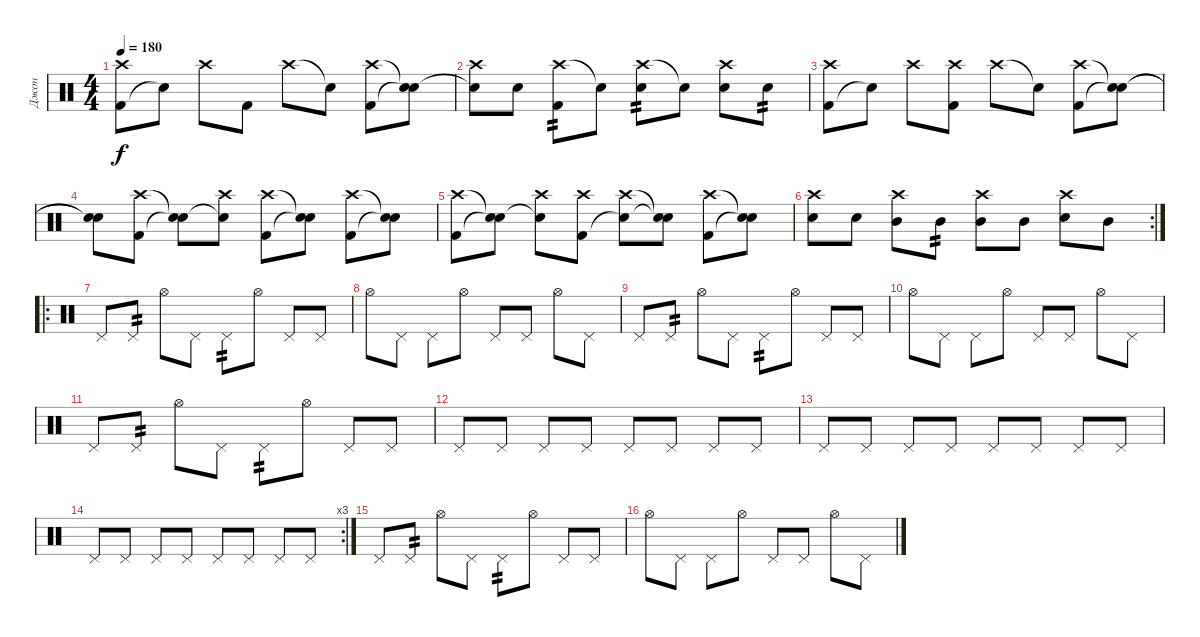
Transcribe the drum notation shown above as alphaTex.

\track ("Джон" "Джон") {instrument percussion}
\staff {score}
\articulation defaults
\ts (4 4)
\tempo 180
\clef neutral
\ks c
("Kick (hit) 2" "Crash high (hit)").8{dy f} "Snare (hit)"{t}.8 "Crash high (hit)".8 "Kick (hit) 2".8 "Crash high (hit)".8 "Snare (hit)"{t}.8 ("Kick (hit) 2" "Crash high (hit)").8 ("Snare (hit)"{t} "Snare (hit)"{t}).8 |
("Crash high (hit)" "Snare (hit)"{t}).8 "Electric Snare (hit)".8 ("Crash high (hit)" "Kick (hit) 2").8{tp 2} "Snare (hit)"{t}.8 ("Crash high (hit)" "Electric Snare (hit)").8{tp 2} "Snare (hit)"{t}.8 ("Crash high (hit)" "Electric Snare (hit)").8 "Electric Snare (hit)".8{tp 2} |
("Kick (hit) 2" "Crash high (hit)").8 "Snare (hit)"{t}.8 "Crash high (hit)".8 ("Kick (hit) 2" "Crash high (hit)").8 "Crash high (hit)".8 "Snare (hit)"{t}.8 ("Kick (hit) 2" "Crash high (hit)").8 ("Snare (hit)"{t} "Snare (hit)"{t}).8 |
("Snare (hit)"{t} "Snare (hit)"{t}).8 ("Kick (hit) 2" "Crash high (hit)").8 ("Snare (hit)"{t} "Snare (hit)"{t}).8 ("Snare (hit)"{t} "Crash high (hit)").8 ("Kick (hit) 2" "Crash high (hit)").8 ("Snare (hit)"{t} "Snare (hit)"{t}).8 ("Kick (hit) 2" "Crash high (hit)").8 ("Snare (hit)"{t} "Snare (hit)"{t}).8 |
("Kick (hit) 2" "Crash high (hit)").8 ("Snare (hit)"{t} "Snare (hit)"{t}).8 ("Snare (hit)"{t} "Crash high (hit)").8 ("Kick (hit) 2" "Crash high (hit)").8 ("Snare (hit)"{t} "Crash high (hit)").8 ("Snare (hit)"{t} "Snare (hit)"{t}).8 ("Kick (hit) 2" "Crash high (hit)").8 ("Snare (hit)"{t} "Snare (hit)"{t}).8 |
\rc 2
("Crash high (hit)" "Electric Snare (hit)").8 "Snare (hit)".8 ("Crash high (hit)" "Mid Tom (hit)").8 "Mid Tom (hit)".8{tp 2} ("Crash high (hit)" "Mid Tom (hit)").8 "Mid Tom (hit)".8 ("Crash high (hit)" "Electric Snare (hit)").8 "Mid Tom (hit)".8 |
\ro "Pedal Hi-Hat (hit)".8 "Pedal Hi-Hat (hit)".8{tp 2} "Hi-Hat (open)".8 "Pedal Hi-Hat (hit)".8 "Pedal Hi-Hat (hit)".8{tp 2} "Hi-Hat (open)".8 "Pedal Hi-Hat (hit)".8 "Pedal Hi-Hat (hit)".8
|
"Hi-Hat (open)".8 "Pedal Hi-Hat (hit)".8 "Pedal Hi-Hat (hit)".8 "Hi-Hat (open)".8 "Pedal Hi-Hat (hit)".8 "Pedal Hi-Hat (hit)".8 "Hi-Hat (open)".8 "Pedal Hi-Hat (hit)".8 |
"Pedal Hi-Hat (hit)".8 "Pedal Hi-Hat (hit)".8{tp 2} "Hi-Hat (open)".8 "Pedal Hi-Hat (hit)".8 "Pedal Hi-Hat (hit)".8{tp 2} "Hi-Hat (open)".8 "Pedal Hi-Hat (hit)".8 "Pedal Hi-Hat (hit)".8 |
"Hi-Hat (open)".8 "Pedal Hi-Hat (hit)".8 "Pedal Hi-Hat (hit)".8 "Hi-Hat (open)".8 "Pedal Hi-Hat (hit)".8 "Pedal Hi-Hat (hit)".8 "Hi-Hat (open)".8 "Pedal Hi-Hat (hit)".8 |
"Pedal Hi-Hat (hit)".8 "Pedal Hi-Hat (hit)".8{tp 2} "Hi-Hat (open)".8 "Pedal Hi-Hat (hit)".8 "Pedal Hi-Hat (hit)".8{tp 2} "Hi-Hat (open)".8 "Pedal Hi-Hat (hit)".8 "Pedal Hi-Hat (hit)".8 |
"Pedal Hi-Hat (hit)".8 "Pedal Hi-Hat (hit)".8 "Pedal Hi-Hat (hit)".8 "Pedal Hi-Hat (hit)".8 "Pedal Hi-Hat (hit)".8 "Pedal Hi-Hat (hit)".8 "Pedal Hi-Hat (hit)".8 "Pedal Hi-Hat (hit)".8 |
"Pedal Hi-Hat (hit)".8 "Pedal Hi-Hat (hit)".8 "Pedal Hi-Hat (hit)".8 "Pedal Hi-Hat (hit)".8 "Pedal Hi-Hat (hit)".8 "Pedal Hi-Hat (hit)".8 "Pedal Hi-Hat (hit)".8 "Pedal Hi-Hat (hit)".8 |
\rc 3 "Pedal Hi-Hat (hit)".8 "Pedal Hi-Hat (hit)".8 "Pedal Hi-Hat (hit)".8 "Pedal Hi-Hat (hit)".8 "Pedal Hi-Hat (hit)".8 "Pedal Hi-Hat (hit)".8 "Pedal Hi-Hat (hit)".8 "Pedal Hi-Hat (hit)".8
|
"Pedal Hi-Hat (hit)".8 "Pedal Hi-Hat (hit)".8{tp 2} "Hi-Hat (open)".8 "Pedal Hi-Hat (hit)".8 "Pedal Hi-Hat (hit)".8{tp 2} "Hi-Hat (open)".8 "Pedal Hi-Hat (hit)".8 "Pedal Hi-Hat (hit)".8 |
"Hi-Hat (open)".8 "Pedal Hi-Hat (hit)".8 "Pedal Hi-Hat (hit)".8 "Hi-Hat (open)".8 "Pedal Hi-Hat (hit)".8 "Pedal Hi-Hat (hit)".8 "Hi-Hat (open)".8 "Pedal Hi-Hat (hit)".8
